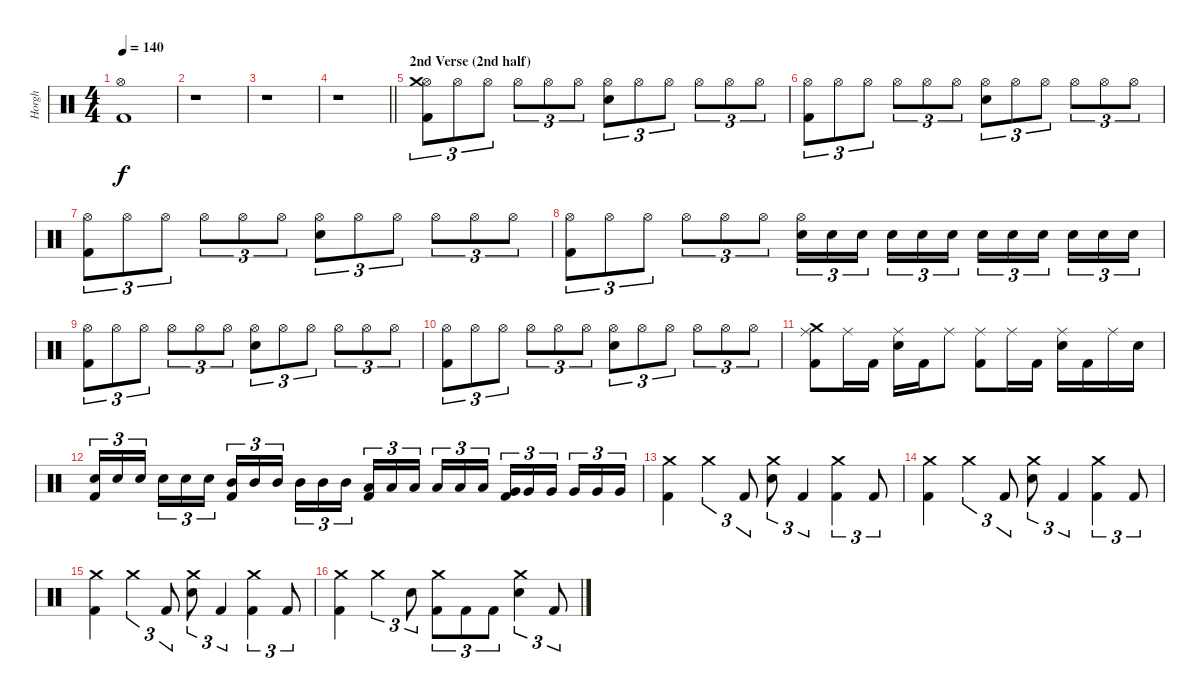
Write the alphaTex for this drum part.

\track ("Horgh" "Horgh") {instrument percussion}
\staff {score}
\articulation defaults
\ts (4 4)
\tempo 140
\clef neutral
\ks c
("Kick (hit) 2" "Hi-Hat (open)").1{dy f} |
r.1 |
r.1 |
\barLineRight lightlight
r.1 |
\section ("" "2nd Verse (2nd half)")
("Kick (hit) 2" "Hi-Hat (open)" "Crash medium (hit)").8{tu (3 2)} "Hi-Hat (open)".8{tu (3 2)} "Hi-Hat (open)".8{tu (3 2)} "Hi-Hat (open)".8{tu (3 2)} "Hi-Hat (open)".8{tu (3 2)} "Hi-Hat (open)".8{tu (3 2)} ("Electric Snare (hit)" "Hi-Hat (open)").8{tu (3 2)} "Hi-Hat (open)".8{tu (3 2)} "Hi-Hat (open)".8{tu (3 2)} "Hi-Hat (open)".8{tu (3 2)} "Hi-Hat (open)".8{tu (3 2)} "Hi-Hat (open)".8{tu (3 2)} |
("Kick (hit) 2" "Hi-Hat (open)").8{tu (3 2)} "Hi-Hat (open)".8{tu (3 2)} "Hi-Hat (open)".8{tu (3 2)} "Hi-Hat (open)".8{tu (3 2)} "Hi-Hat (open)".8{tu (3 2)} "Hi-Hat (open)".8{tu (3 2)} ("Electric Snare (hit)" "Hi-Hat (open)").8{tu (3 2)} "Hi-Hat (open)".8{tu (3 2)} "Hi-Hat (open)".8{tu (3 2)} "Hi-Hat (open)".8{tu (3 2)} "Hi-Hat (open)".8{tu (3 2)} "Hi-Hat (open)".8{tu (3 2)} |
("Kick (hit) 2" "Hi-Hat (open)").8{tu (3 2)} "Hi-Hat (open)".8{tu (3 2)} "Hi-Hat (open)".8{tu (3 2)} "Hi-Hat (open)".8{tu (3 2)} "Hi-Hat (open)".8{tu (3 2)} "Hi-Hat (open)".8{tu (3 2)} ("Electric Snare (hit)" "Hi-Hat (open)").8{tu (3 2)} "Hi-Hat (open)".8{tu (3 2)} "Hi-Hat (open)".8{tu (3 2)} "Hi-Hat (open)".8{tu (3 2)} "Hi-Hat (open)".8{tu (3 2)} "Hi-Hat (open)".8{tu (3 2)} |
("Kick (hit) 2" "Hi-Hat (open)").8{tu (3 2)} "Hi-Hat (open)".8{tu (3 2)} "Hi-Hat (open)".8{tu (3 2)} "Hi-Hat (open)".8{tu (3 2)} "Hi-Hat (open)".8{tu (3 2)} "Hi-Hat (open)".8{tu (3 2)} ("Snare (hit) 2" "Hi-Hat (open)").16{tu (3 2)} "Snare (hit) 2".16{tu (3 2)} "Snare (hit) 2".16{tu (3 2) beam splitsecondary} "Snare (hit) 2".16{tu (3 2)} "Snare (hit) 2".16{tu (3 2)} "Snare (hit) 2".16{tu (3 2)} "Snare (hit) 2".16{tu (3 2)} "Snare (hit) 2".16{tu (3 2)} "Snare (hit) 2".16{tu (3 2) beam splitsecondary} "Snare (hit) 2".16{tu (3 2)} "Snare (hit) 2".16{tu (3 2)} "Snare (hit) 2".16{tu (3 2)} |
("Kick (hit) 2" "Hi-Hat (open)").8{tu (3 2)} "Hi-Hat (open)".8{tu (3 2)} "Hi-Hat (open)".8{tu (3 2)} "Hi-Hat (open)".8{tu (3 2)} "Hi-Hat (open)".8{tu (3 2)} "Hi-Hat (open)".8{tu (3 2)} ("Electric Snare (hit)" "Hi-Hat (open)").8{tu (3 2)} "Hi-Hat (open)".8{tu (3 2)} "Hi-Hat (open)".8{tu (3 2)} "Hi-Hat (open)".8{tu (3 2)} "Hi-Hat (open)".8{tu (3 2)} "Hi-Hat (open)".8{tu (3 2)} |
("Kick (hit) 2" "Hi-Hat (open)").8{tu (3 2)} "Hi-Hat (open)".8{tu (3 2)} "Hi-Hat (open)".8{tu (3 2)} "Hi-Hat (open)".8{tu (3 2)} "Hi-Hat (open)".8{tu (3 2)} "Hi-Hat (open)".8{tu (3 2)} ("Electric Snare (hit)" "Hi-Hat (open)").8{tu (3 2)} "Hi-Hat (open)".8{tu (3 2)} "Hi-Hat (open)".8{tu (3 2)} "Hi-Hat (open)".8{tu (3 2)} "Hi-Hat (open)".8{tu (3 2)} "Hi-Hat (open)".8{tu (3 2)} |
("Kick (hit) 2" "Ride (middle)" "Crash medium (hit)").8 "Ride (middle)".16 "Kick (hit) 2".16 ("Electric Snare (hit)" "Ride (middle)").16 "Kick (hit) 2".16 "Ride (middle)".8 ("Kick (hit) 2" "Ride (middle)").8 "Ride (middle)".16 "Kick (hit) 2".16 ("Electric Snare (hit)" "Ride (middle)").16 "Kick (hit) 2".16 "Ride (middle)".16 "Electric Snare (hit)".16 |
("Kick (hit) 2" "Snare (hit) 2").16{tu (3 2)} "Snare (hit) 2".16{tu (3 2)} "Snare (hit) 2".16{tu (3 2) beam splitsecondary} "Snare (hit) 2".16{tu (3 2)} "Snare (hit) 2".16{tu (3 2)} "Snare (hit) 2".16{tu (3 2)} ("Kick (hit) 2" "Mid Tom (hit)").16{tu (3 2)} "Mid Tom (hit)".16{tu (3 2)} "Mid Tom (hit)".16{tu (3 2) beam splitsecondary} "Mid Tom (hit)".16{tu (3 2)} "Mid Tom (hit)".16{tu (3 2)} "Mid Tom (hit)".16{tu (3 2)} ("Kick (hit) 2" "Low Tom (hit)").16{tu (3 2)} "Low Tom (hit)".16{tu (3 2)} "Low Tom (hit)".16{tu (3 2) beam splitsecondary} "Low Tom (hit)".16{tu (3 2)} "Low Tom (hit)".16{tu (3 2)} "Low Tom (hit)".16{tu (3 2)} ("Kick (hit) 2" "Very Low Tom (hit)").16{tu (3 2)} "Very Low Tom (hit)".16{tu (3 2)} "Very Low Tom (hit)".16{tu (3 2) beam splitsecondary} "Very Low Tom (hit)".16{tu (3 2)} "Very Low Tom (hit)".16{tu (3 2)} "Very Low Tom (hit)".16{tu (3 2)} |
("Kick (hit) 2" "Crash medium (hit)").4 "Crash medium (hit)".4{tu (3 2)} "Kick (hit) 2".8{tu (3 2)} ("Electric Snare (hit)" "Crash medium (hit)").8{tu (3 2)} "Kick (hit) 2".4{tu (3 2)} ("Kick (hit) 2" "Crash medium (hit)").4{tu (3 2)} "Kick (hit) 2".8{tu (3 2)} |
("Kick (hit) 2" "Crash medium (hit)").4 "Crash medium (hit)".4{tu (3 2)} "Kick (hit) 2".8{tu (3 2)} ("Electric Snare (hit)" "Crash medium (hit)").8{tu (3 2)} "Kick (hit) 2".4{tu (3 2)} ("Kick (hit) 2" "Crash medium (hit)").4{tu (3 2)} "Kick (hit) 2".8{tu (3 2)} |
("Kick (hit) 2" "Crash medium (hit)").4 "Crash medium (hit)".4{tu (3 2)} "Kick (hit) 2".8{tu (3 2)} ("Electric Snare (hit)" "Crash medium (hit)").8{tu (3 2)} "Kick (hit) 2".4{tu (3 2)} ("Kick (hit) 2" "Crash medium (hit)").4{tu (3 2)} "Kick (hit) 2".8{tu (3 2)} |
("Kick (hit) 2" "Crash medium (hit)").4 "Crash medium (hit)".4{tu (3 2)} "Electric Snare (hit)".8{tu (3 2)} ("Kick (hit) 2" "Crash medium (hit)").8{tu (3 2)} "Kick (hit) 2".8{tu (3 2)} "Kick (hit) 2".8{tu (3 2)} ("Electric Snare (hit)" "Crash medium (hit)").4{tu (3 2)} "Kick (hit) 2".8{tu (3 2)}
